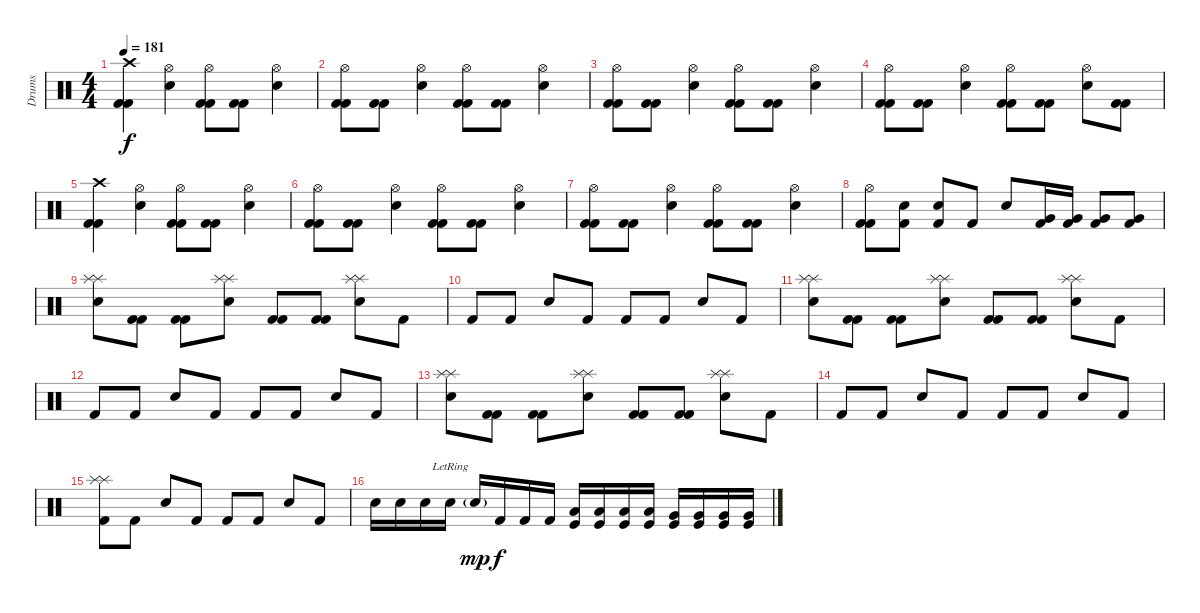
\track ("Drums" "Drums") {instrument percussion}
\staff {score}
\articulation defaults
\ts (4 4)
\tempo 181
\clef neutral
\ks c
("Crash high (hit)" "Kick (hit) 2" "Kick (hit) 2").4{dy f} ("Hi-Hat (open)" "Electric Snare (hit)").4 ("Hi-Hat (open)" "Kick (hit) 2" "Kick (hit) 2").8 ("Kick (hit) 2" "Kick (hit) 2").8 ("Hi-Hat (open)" "Electric Snare (hit)").4 |
("Hi-Hat (open)" "Kick (hit) 2" "Kick (hit) 2").8 ("Kick (hit) 2" "Kick (hit) 2").8 ("Hi-Hat (open)" "Electric Snare (hit)").4 ("Hi-Hat (open)" "Kick (hit) 2" "Kick (hit) 2").8 ("Kick (hit) 2" "Kick (hit) 2").8 ("Hi-Hat (open)" "Electric Snare (hit)").4 |
("Hi-Hat (open)" "Kick (hit) 2" "Kick (hit) 2").8 ("Kick (hit) 2" "Kick (hit) 2").8 ("Hi-Hat (open)" "Electric Snare (hit)").4 ("Hi-Hat (open)" "Kick (hit) 2" "Kick (hit) 2").8 ("Kick (hit) 2" "Kick (hit) 2").8 ("Hi-Hat (open)" "Electric Snare (hit)").4 |
("Hi-Hat (open)" "Kick (hit) 2" "Kick (hit) 2").8 ("Kick (hit) 2" "Kick (hit) 2").8 ("Hi-Hat (open)" "Electric Snare (hit)").4 ("Hi-Hat (open)" "Kick (hit) 2" "Kick (hit) 2").8 ("Kick (hit) 2" "Kick (hit) 2").8 ("Hi-Hat (open)" "Electric Snare (hit)").8 ("Kick (hit) 2" "Kick (hit) 2").8 |
("Crash high (hit)" "Kick (hit) 2" "Kick (hit) 2").4 ("Hi-Hat (open)" "Electric Snare (hit)").4 ("Hi-Hat (open)" "Kick (hit) 2" "Kick (hit) 2").8 ("Kick (hit) 2" "Kick (hit) 2").8 ("Hi-Hat (open)" "Electric Snare (hit)").4 |
("Hi-Hat (open)" "Kick (hit) 2" "Kick (hit) 2").8 ("Kick (hit) 2" "Kick (hit) 2").8 ("Hi-Hat (open)" "Electric Snare (hit)").4 ("Hi-Hat (open)" "Kick (hit) 2" "Kick (hit) 2").8 ("Kick (hit) 2" "Kick (hit) 2").8 ("Hi-Hat (open)" "Electric Snare (hit)").4 |
("Hi-Hat (open)" "Kick (hit) 2" "Kick (hit) 2").8 ("Kick (hit) 2" "Kick (hit) 2").8 ("Hi-Hat (open)" "Electric Snare (hit)").4 ("Hi-Hat (open)" "Kick (hit) 2" "Kick (hit) 2").8 ("Kick (hit) 2" "Kick (hit) 2").8 ("Hi-Hat (open)" "Electric Snare (hit)").4 |
("Hi-Hat (open)" "Kick (hit) 2" "Kick (hit) 2").8 ("Electric Snare (hit)" "Kick (hit) 2").8 ("Electric Snare (hit)" "Kick (hit) 2").8 "Kick (hit) 2".8 "Electric Snare (hit)".8 ("Very Low Tom (hit)" "Kick (hit) 2").16 ("Very Low Tom (hit)" "Kick (hit) 2").16 ("Very Low Tom (hit)" "Kick (hit) 2").8 ("Very Low Tom (hit)" "Kick (hit) 2").8 |
("Splash (hit)" "Splash (hit)" "Electric Snare (hit)").8 ("Kick (hit) 2" "Kick (hit) 2").8 ("Kick (hit) 2" "Kick (hit) 2").8 ("Splash (hit)" "Splash (hit)" "Electric Snare (hit)").8 ("Kick (hit) 2" "Kick (hit) 2").8 ("Kick (hit) 2" "Kick (hit) 2").8 ("Splash (hit)" "Splash (hit)" "Electric Snare (hit)").8 "Kick (hit) 2".8 |
"Kick (hit) 2".8 "Kick (hit) 2".8 "Electric Snare (hit)".8 "Kick (hit) 2".8 "Kick (hit) 2".8 "Kick (hit) 2".8 "Electric Snare (hit)".8 "Kick (hit) 2".8 |
("Splash (hit)" "Splash (hit)" "Electric Snare (hit)").8 ("Kick (hit) 2" "Kick (hit) 2").8 ("Kick (hit) 2" "Kick (hit) 2").8 ("Splash (hit)" "Splash (hit)" "Electric Snare (hit)").8 ("Kick (hit) 2" "Kick (hit) 2").8 ("Kick (hit) 2" "Kick (hit) 2").8 ("Splash (hit)" "Splash (hit)" "Electric Snare (hit)").8 "Kick (hit) 2".8 |
"Kick (hit) 2".8 "Kick (hit) 2".8 "Electric Snare (hit)".8 "Kick (hit) 2".8 "Kick (hit) 2".8 "Kick (hit) 2".8 "Electric Snare (hit)".8 "Kick (hit) 2".8 |
("Splash (hit)" "Splash (hit)" "Electric Snare (hit)").8 ("Kick (hit) 2" "Kick (hit) 2").8 ("Kick (hit) 2" "Kick (hit) 2").8 ("Splash (hit)" "Splash (hit)" "Electric Snare (hit)").8 ("Kick (hit) 2" "Kick (hit) 2").8 ("Kick (hit) 2" "Kick (hit) 2").8 ("Splash (hit)" "Splash (hit)" "Electric Snare (hit)").8 "Kick (hit) 2".8 |
"Kick (hit) 2".8 "Kick (hit) 2".8 "Electric Snare (hit)".8 "Kick (hit) 2".8 "Kick (hit) 2".8 "Kick (hit) 2".8 "Electric Snare (hit)".8 "Kick (hit) 2".8 |
("Splash (hit)" "Splash (hit)" "Kick (hit) 2").8 "Kick (hit) 2".8 "Electric Snare (hit)".8 "Kick (hit) 2".8 "Kick (hit) 2".8 "Kick (hit) 2".8 "Electric Snare (hit)".8 "Kick (hit) 2".8 |
"Electric Snare (hit)".16 "Electric Snare (hit)".16 "Electric Snare (hit)".16 "Electric Snare (hit)"{lr}.16 "Electric Snare (hit)"{g}.16{dy mp} "Kick (hit) 2".16{dy f} "Kick (hit) 2".16 "Kick (hit) 2".16 ("Low Tom (hit)" "Kick (hit)").16 ("Low Tom (hit)" "Kick (hit)").16 ("Low Tom (hit)" "Kick (hit)").16 ("Low Tom (hit)" "Kick (hit)").16 ("Very Low Tom (hit)" "Kick (hit)").16 ("Very Low Tom (hit)" "Kick (hit)").16 ("Very Low Tom (hit)" "Kick (hit)").16 ("Very Low Tom (hit)" "Kick (hit)").16
